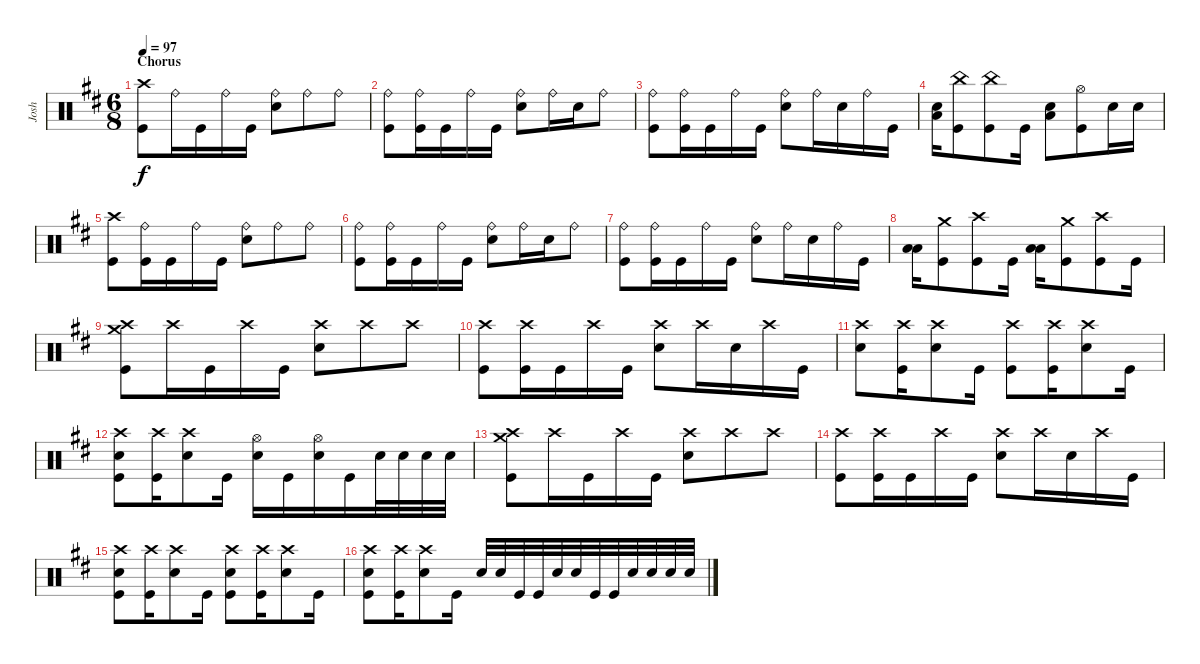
\track ("Josh" "Josh") {instrument percussion}
\staff {score}
\articulation defaults
\ts (6 8)
\section ("" "Chorus")
\tempo 97
\clef neutral
\ks bminor
("Kick (hit)" "Crash high (hit)").8{dy f} "Ride (bell)".16 "Kick (hit)".16 "Ride (bell)".16 "Kick (hit)".16 ("Snare (hit) 2" "Ride (bell)").8 "Ride (bell)".8 "Ride (bell)".8 |
("Kick (hit)" "Ride (bell)").8 ("Kick (hit)" "Ride (bell)").16 "Kick (hit)".16 "Ride (bell)".16 "Kick (hit)".16 ("Snare (hit) 2" "Ride (bell)").8 "Ride (bell)".16 "Snare (hit) 2".16 "Ride (bell)".8 |
("Kick (hit)" "Ride (bell)").8 ("Kick (hit)" "Ride (bell)").16 "Kick (hit)".16 "Ride (bell)".16 "Kick (hit)".16 ("Snare (hit) 2" "Ride (bell)").8 "Ride (bell)".16 "Snare (hit) 2".16 "Ride (bell)".16 "Kick (hit)".16 |
("Snare (hit) 2" "Low Floor Tom (hit)").16 ("Kick (hit)" "China (hit)").8 ("Kick (hit)" "China (hit)").8 "Kick (hit)".16 ("Snare (hit) 2" "Low Floor Tom (hit)").8 ("Kick (hit)" "Hi-Hat (open)").8 "Snare (hit) 2".16 "Snare (hit) 2".16 |
("Kick (hit)" "Crash high (hit)").8 ("Ride (bell)" "Kick (hit)").16 "Kick (hit)".16 "Ride (bell)".16 "Kick (hit)".16 ("Snare (hit) 2" "Ride (bell)").8 "Ride (bell)".8 "Ride (bell)".8 |
("Kick (hit)" "Ride (bell)").8 ("Kick (hit)" "Ride (bell)").16 "Kick (hit)".16 "Ride (bell)".16 "Kick (hit)".16 ("Snare (hit) 2" "Ride (bell)").8 "Ride (bell)".16 "Snare (hit) 2".16 "Ride (bell)".8 |
("Kick (hit)" "Ride (bell)").8 ("Kick (hit)" "Ride (bell)").16 "Kick (hit)".16 "Ride (bell)".16 "Kick (hit)".16 ("Snare (hit) 2" "Ride (bell)").8 "Ride (bell)".16 "Snare (hit) 2".16 "Ride (bell)".16 "Kick (hit)".16 |
("Low Floor Tom (hit)" "Low Tom (hit)").16 ("Kick (hit)" "Crash medium (hit)").8 ("Kick (hit)" "Crash high (hit)").8 "Kick (hit)".16 ("Low Floor Tom (hit)" "Low Tom (hit)").16 ("Kick (hit)" "Crash medium (hit)").8 ("Kick (hit)" "Crash high (hit)").8 "Kick (hit)".16 |
("Kick (hit)" "Crash high (hit)" "Crash medium (hit)").8 "Crash high (hit)".16 "Kick (hit)".16 "Crash high (hit)".16 "Kick (hit)".16 ("Snare (hit) 2" "Crash high (hit)").8 "Crash high (hit)".8 "Crash high (hit)".8 |
("Kick (hit)" "Crash high (hit)").8 ("Crash high (hit)" "Kick (hit)").16 "Kick (hit)".16 "Crash high (hit)".16 "Kick (hit)".16 ("Snare (hit) 2" "Crash high (hit)").8 "Crash high (hit)".16 "Snare (hit) 2".16 "Crash high (hit)".16 "Kick (hit)".16 |
("Crash high (hit)" "Snare (hit) 2").8 ("Kick (hit)" "Crash high (hit)").16 ("Crash high (hit)" "Snare (hit) 2").8 "Kick (hit)".16 ("Kick (hit)" "Crash high (hit)").8 ("Kick (hit)" "Crash high (hit)").16 ("Crash high (hit)" "Snare (hit) 2").8 "Kick (hit)".16 |
("Kick (hit)" "Crash high (hit)" "Snare (hit) 2").8 ("Kick (hit)" "Crash high (hit)").16 ("Crash high (hit)" "Snare (hit) 2").8 "Kick (hit)".16 ("Snare (hit) 2" "Hi-Hat (open)").16 "Kick (hit)".16 ("Snare (hit) 2" "Hi-Hat (open)").16 "Kick (hit)".16 "Snare (hit) 2".32 "Snare (hit) 2".32 "Snare (hit) 2".32 "Snare (hit) 2".32 |
("Kick (hit)" "Crash high (hit)" "Crash medium (hit)").8 "Crash high (hit)".16 "Kick (hit)".16 "Crash high (hit)".16 "Kick (hit)".16 ("Snare (hit) 2" "Crash high (hit)").8 "Crash high (hit)".8 "Crash high (hit)".8 |
("Kick (hit)" "Crash high (hit)").8 ("Crash high (hit)" "Kick (hit)").16 "Kick (hit)".16 "Crash high (hit)".16 "Kick (hit)".16 ("Snare (hit) 2" "Crash high (hit)").8 "Crash high (hit)".16 "Snare (hit) 2".16 "Crash high (hit)".16 "Kick (hit)".16 |
("Kick (hit)" "Crash high (hit)" "Snare (hit) 2").8 ("Kick (hit)" "Crash high (hit)").16 ("Crash high (hit)" "Snare (hit) 2").8 "Kick (hit)".16 ("Kick (hit)" "Crash high (hit)" "Snare (hit) 2").8 ("Kick (hit)" "Crash high (hit)").16 ("Crash high (hit)" "Snare (hit) 2").8 "Kick (hit)".16 |
("Kick (hit)" "Crash high (hit)" "Snare (hit) 2").8 ("Kick (hit)" "Crash high (hit)").16 ("Crash high (hit)" "Snare (hit) 2").8 "Kick (hit)".16 "Snare (hit) 2".32 "Snare (hit) 2".32 "Kick (hit)".32 "Kick (hit)".32 "Snare (hit) 2".32 "Snare (hit) 2".32 "Kick (hit)".32 "Kick (hit)".32 "Snare (hit) 2".32 "Snare (hit) 2".32 "Snare (hit) 2".32 "Snare (hit) 2".32
